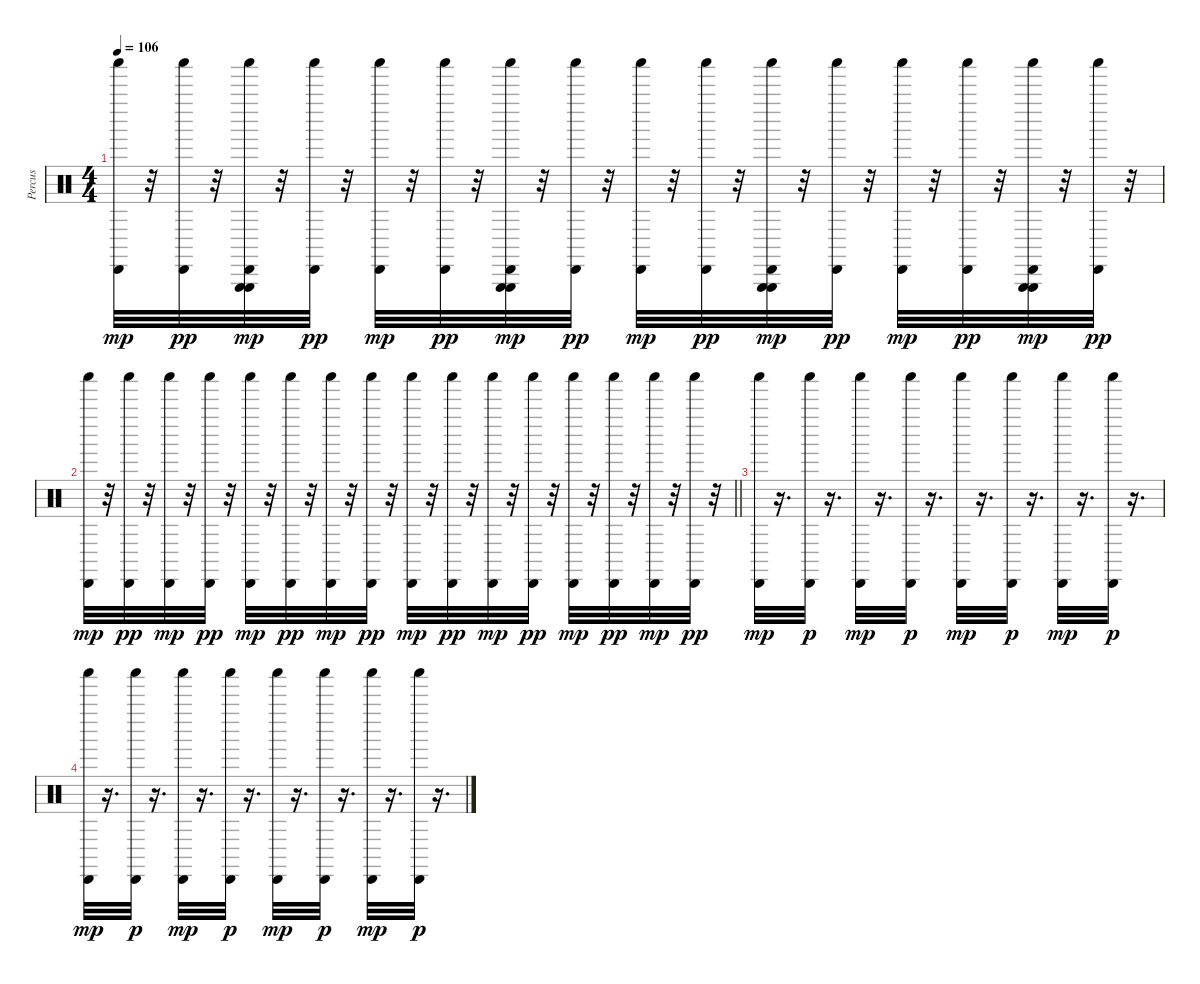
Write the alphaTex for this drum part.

\track ("Percus" "Percus") {instrument percussion}
\staff {score}
\articulation defaults
\ts (4 4)
\tempo 106
\clef neutral
\ks c
("Shaker (hit)" "Cabasa (hit)").32{dy mp} r.32 ("Shaker (hit)" "Cabasa (hit)").32{dy pp} r.32 ("Shaker (hit)" "Triangle (hit)" "Triangle (hit)" "Cabasa (hit)").32{dy mp} r.32 ("Shaker (hit)" "Cabasa (hit)").32{dy pp} r.32 ("Shaker (hit)" "Cabasa (hit)").32{dy mp} r.32 ("Shaker (hit)" "Cabasa (hit)").32{dy pp} r.32 ("Shaker (hit)" "Triangle (hit)" "Triangle (hit)" "Cabasa (hit)").32{dy mp} r.32 ("Shaker (hit)" "Cabasa (hit)").32{dy pp} r.32 ("Shaker (hit)" "Cabasa (hit)").32{dy mp} r.32 ("Shaker (hit)" "Cabasa (hit)").32{dy pp} r.32 ("Shaker (hit)" "Triangle (hit)" "Triangle (hit)" "Cabasa (hit)").32{dy mp} r.32 ("Shaker (hit)" "Cabasa (hit)").32{dy pp} r.32 ("Shaker (hit)" "Cabasa (hit)").32{dy mp} r.32 ("Shaker (hit)" "Cabasa (hit)").32{dy pp} r.32 ("Shaker (hit)" "Triangle (hit)" "Triangle (hit)" "Cabasa (hit)").32{dy mp} r.32 ("Shaker (hit)" "Cabasa (hit)").32{dy pp} r.32 |
\barLineRight lightlight
("Shaker (hit)" "Cabasa (hit)").32{dy mp} r.32 ("Shaker (hit)" "Cabasa (hit)").32{dy pp} r.32 ("Shaker (hit)" "Cabasa (hit)").32{dy mp} r.32 ("Shaker (hit)" "Cabasa (hit)").32{dy pp} r.32 ("Shaker (hit)" "Cabasa (hit)").32{dy mp} r.32 ("Shaker (hit)" "Cabasa (hit)").32{dy pp} r.32 ("Shaker (hit)" "Cabasa (hit)").32{dy mp} r.32 ("Shaker (hit)" "Cabasa (hit)").32{dy pp} r.32 ("Shaker (hit)" "Cabasa (hit)").32{dy mp} r.32 ("Shaker (hit)" "Cabasa (hit)").32{dy pp} r.32 ("Shaker (hit)" "Cabasa (hit)").32{dy mp} r.32 ("Shaker (hit)" "Cabasa (hit)").32{dy pp} r.32 ("Shaker (hit)" "Cabasa (hit)").32{dy mp} r.32 ("Shaker (hit)" "Cabasa (hit)").32{dy pp} r.32 ("Shaker (hit)" "Cabasa (hit)").32{dy mp} r.32 ("Shaker (hit)" "Cabasa (hit)").32{dy pp} r.32 |
("Shaker (hit)" "Cabasa (hit)").32{dy mp} r.16{d} ("Shaker (hit)" "Cabasa (hit)").32{dy p} r.16{d} ("Shaker (hit)" "Cabasa (hit)").32{dy mp} r.16{d} ("Shaker (hit)" "Cabasa (hit)").32{dy p} r.16{d} ("Shaker (hit)" "Cabasa (hit)").32{dy mp} r.16{d} ("Shaker (hit)" "Cabasa (hit)").32{dy p} r.16{d} ("Shaker (hit)" "Cabasa (hit)").32{dy mp} r.16{d} ("Shaker (hit)" "Cabasa (hit)").32{dy p} r.16{d} |
("Shaker (hit)" "Cabasa (hit)").32{dy mp} r.16{d} ("Shaker (hit)" "Cabasa (hit)").32{dy p} r.16{d} ("Shaker (hit)" "Cabasa (hit)").32{dy mp} r.16{d} ("Shaker (hit)" "Cabasa (hit)").32{dy p} r.16{d} ("Shaker (hit)" "Cabasa (hit)").32{dy mp} r.16{d} ("Shaker (hit)" "Cabasa (hit)").32{dy p} r.16{d} ("Shaker (hit)" "Cabasa (hit)").32{dy mp} r.16{d} ("Shaker (hit)" "Cabasa (hit)").32{dy p} r.16{d}
